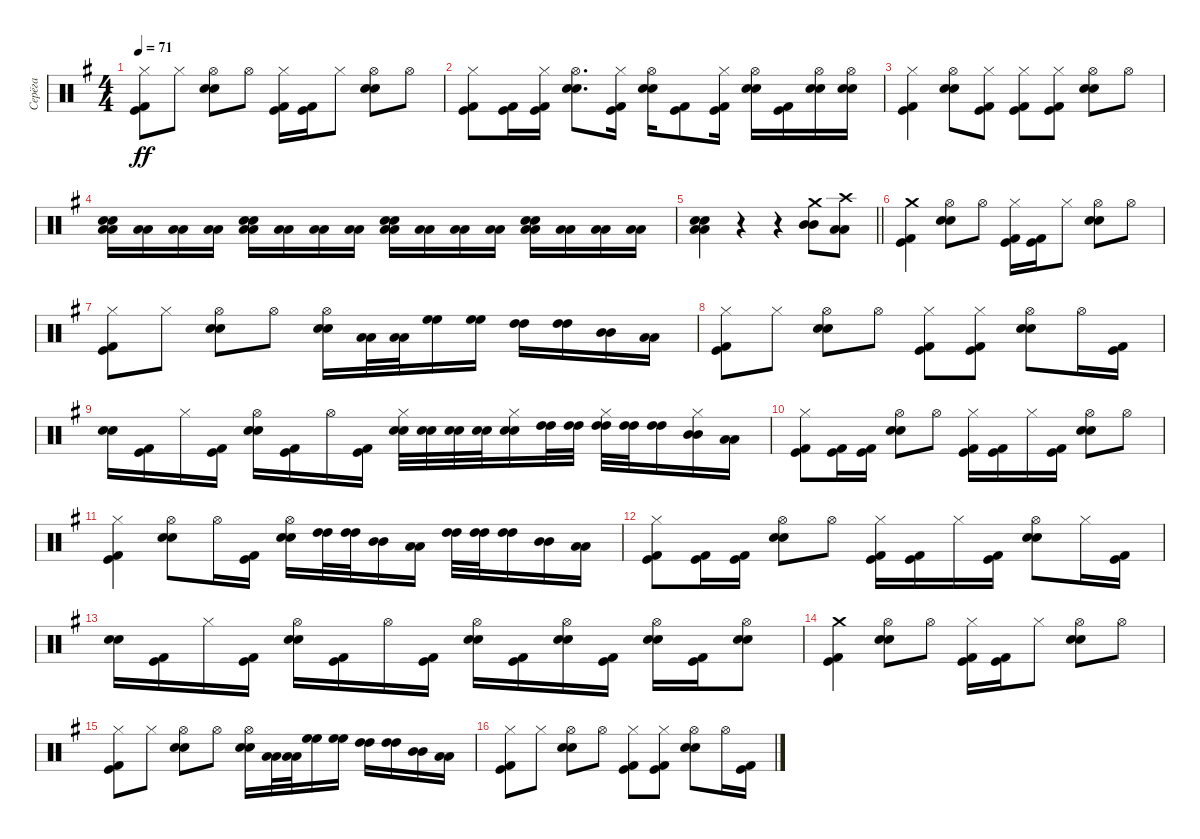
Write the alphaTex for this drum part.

\track ("Серёга" "Серёга") {instrument percussion}
\staff {score}
\articulation defaults
\ts (4 4)
\tempo 71
\clef neutral
\ks eminor
("Hi-Hat (closed)" "Kick (hit)" "Kick (hit) 2").8{dy ff} "Hi-Hat (closed)".8 ("Hi-Hat (open)" "Electric Snare (hit)" "Snare (hit) 2").8 "Hi-Hat (open)".8 ("Hi-Hat (closed)" "Kick (hit)" "Kick (hit) 2").16 ("Kick (hit)" "Kick (hit) 2").16 "Hi-Hat (closed)".8 ("Hi-Hat (open)" "Snare (hit) 2" "Electric Snare (hit)").8 "Hi-Hat (open)".8 |
("Hi-Hat (closed)" "Kick (hit)" "Kick (hit) 2").8 ("Kick (hit)" "Kick (hit) 2").16 ("Hi-Hat (closed)" "Kick (hit)" "Kick (hit) 2").16 ("Hi-Hat (open)" "Electric Snare (hit)" "Snare (hit) 2").8{d} ("Hi-Hat (closed)" "Kick (hit)" "Kick (hit) 2").16 ("Hi-Hat (open)" "Electric Snare (hit)" "Snare (hit) 2").16 ("Kick (hit)" "Kick (hit) 2").8 ("Hi-Hat (closed)" "Kick (hit)" "Kick (hit) 2").16 ("Hi-Hat (open)" "Electric Snare (hit)" "Snare (hit) 2").16 ("Kick (hit)" "Kick (hit) 2").16 ("Hi-Hat (open)" "Electric Snare (hit)" "Snare (hit) 2").16 ("Hi-Hat (open)" "Electric Snare (hit)" "Snare (hit) 2").16 |
("Hi-Hat (closed)" "Kick (hit)" "Kick (hit) 2").4 ("Hi-Hat (open)" "Electric Snare (hit)" "Snare (hit) 2").8 ("Hi-Hat (closed)" "Kick (hit)" "Kick (hit) 2").8 ("Hi-Hat (closed)" "Kick (hit)" "Kick (hit) 2").8 ("Hi-Hat (closed)" "Kick (hit)" "Kick (hit) 2").8 ("Hi-Hat (open)" "Electric Snare (hit)" "Snare (hit) 2").8 "Hi-Hat (open)".8 |
("Low Tom (hit)" "Low Tom (hit)" "Snare (hit) 2" "Electric Snare (hit)").16 ("Low Tom (hit)" "Low Tom (hit)").16 ("Low Tom (hit)" "Low Tom (hit)").16 ("Low Tom (hit)" "Low Tom (hit)").16 ("Low Tom (hit)" "Low Tom (hit)" "Snare (hit) 2" "Electric Snare (hit)").16 ("Low Tom (hit)" "Low Tom (hit)").16 ("Low Tom (hit)" "Low Tom (hit)").16 ("Low Tom (hit)" "Low Tom (hit)").16 ("Low Tom (hit)" "Low Tom (hit)" "Snare (hit) 2" "Electric Snare (hit)").16 ("Low Tom (hit)" "Low Tom (hit)").16 ("Low Tom (hit)" "Low Tom (hit)").16 ("Low Tom (hit)" "Low Tom (hit)").16 ("Low Tom (hit)" "Low Tom (hit)" "Snare (hit) 2" "Electric Snare (hit)").16 ("Low Tom (hit)" "Low Tom (hit)").16 ("Low Tom (hit)" "Low Tom (hit)").16 ("Low Tom (hit)" "Low Tom (hit)").16 |
\barLineRight lightlight
("Low Tom (hit)" "Low Tom (hit)" "Snare (hit) 2" "Electric Snare (hit)").4 r.4 r.4 ("Mid Tom (hit)" "Mid Tom (hit)" "Crash medium (hit)").8 ("Low Tom (hit)" "Low Tom (hit)" "Crash high (hit)").8 |
("Crash medium (hit)" "Kick (hit)" "Kick (hit) 2").4 ("Hi-Hat (open)" "Electric Snare (hit)" "Snare (hit) 2").8 "Hi-Hat (open)".8 ("Hi-Hat (closed)" "Kick (hit)" "Kick (hit) 2").16 ("Kick (hit)" "Kick (hit) 2").16 "Hi-Hat (closed)".8 ("Hi-Hat (open)" "Electric Snare (hit)" "Snare (hit) 2").8 "Hi-Hat (open)".8 |
("Hi-Hat (closed)" "Kick (hit)" "Kick (hit) 2").8 "Hi-Hat (closed)".8 ("Hi-Hat (open)" "Electric Snare (hit)" "Snare (hit) 2").8 "Hi-Hat (open)".8 ("Hi-Hat (open)" "Electric Snare (hit)" "Snare (hit) 2").16 ("Low Tom (hit)" "Low Tom (hit)").32 ("Low Tom (hit)" "Low Tom (hit)").32 ("High Floor Tom (hit)" "High Floor Tom (hit)").16 ("High Floor Tom (hit)" "High Floor Tom (hit)").16 ("High Tom (hit)" "High Tom (hit)").16 ("High Tom (hit)" "High Tom (hit)").16 ("Mid Tom (hit)" "Mid Tom (hit)").16 ("Low Tom (hit)" "Low Tom (hit)").16 |
("Hi-Hat (closed)" "Kick (hit)" "Kick (hit) 2").8 "Hi-Hat (closed)".8 ("Hi-Hat (open)" "Electric Snare (hit)" "Snare (hit) 2").8 "Hi-Hat (open)".8 ("Hi-Hat (closed)" "Kick (hit)" "Kick (hit) 2").8 ("Hi-Hat (closed)" "Kick (hit)" "Kick (hit) 2").8 ("Hi-Hat (open)" "Electric Snare (hit)" "Snare (hit) 2").8 "Hi-Hat (open)".16 ("Kick (hit)" "Kick (hit) 2").16 |
("Electric Snare (hit)" "Snare (hit) 2").16 ("Kick (hit)" "Kick (hit) 2").16 "Hi-Hat (closed)".16 ("Kick (hit)" "Kick (hit) 2").16 ("Hi-Hat (open)" "Electric Snare (hit)" "Snare (hit) 2").16 ("Kick (hit)" "Kick (hit) 2").16 "Hi-Hat (open)".16 ("Kick (hit)" "Kick (hit) 2").16 ("Hi-Hat (closed)" "Snare (hit) 2" "Electric Snare (hit)").32 ("Snare (hit) 2" "Electric Snare (hit)").32 ("Snare (hit) 2" "Electric Snare (hit)").32 ("Snare (hit) 2" "Electric Snare (hit)").32 ("Hi-Hat (closed)" "Snare (hit) 2" "Electric Snare (hit)").16 ("High Tom (hit)" "High Tom (hit)").32 ("High Tom (hit)" "High Tom (hit)").32 ("Hi-Hat (closed)" "High Tom (hit)" "High Tom (hit)").32 ("High Tom (hit)" "High Tom (hit)").32 ("High Tom (hit)" "High Tom (hit)").16 ("Hi-Hat (closed)" "Mid Tom (hit)" "Mid Tom (hit)").16 ("Low Tom (hit)" "Low Tom (hit)").16 |
("Hi-Hat (closed)" "Kick (hit)" "Kick (hit) 2").8 ("Kick (hit)" "Kick (hit) 2").16 ("Kick (hit)" "Kick (hit) 2").16 ("Hi-Hat (open)" "Electric Snare (hit)" "Snare (hit) 2").8 "Hi-Hat (open)".8 ("Hi-Hat (closed)" "Kick (hit)" "Kick (hit) 2").16 ("Kick (hit)" "Kick (hit) 2").16 "Hi-Hat (closed)".16 ("Kick (hit)" "Kick (hit) 2").16 ("Hi-Hat (open)" "Electric Snare (hit)" "Snare (hit) 2").8 "Hi-Hat (open)".8 |
("Hi-Hat (closed)" "Kick (hit)" "Kick (hit) 2").4 ("Hi-Hat (open)" "Electric Snare (hit)" "Snare (hit) 2").8 "Hi-Hat (open)".16 ("Kick (hit)" "Kick (hit) 2").16 ("Hi-Hat (open)" "Snare (hit) 2" "Electric Snare (hit)").16 ("High Tom (hit)" "High Tom (hit)").32 ("High Tom (hit)" "High Tom (hit)").32 ("Mid Tom (hit)" "Mid Tom (hit)").16 ("Low Tom (hit)" "Low Tom (hit)").16 ("High Tom (hit)" "High Tom (hit)").32 ("High Tom (hit)" "High Tom (hit)").32 ("High Tom (hit)" "High Tom (hit)").16 ("Mid Tom (hit)" "Mid Tom (hit)").16 ("Low Tom (hit)" "Low Tom (hit)").16 |
("Hi-Hat (closed)" "Kick (hit)" "Kick (hit) 2").8 ("Kick (hit)" "Kick (hit) 2").16 ("Kick (hit)" "Kick (hit) 2").16 ("Hi-Hat (open)" "Electric Snare (hit)" "Snare (hit) 2").8 "Hi-Hat (open)".8 ("Hi-Hat (closed)" "Kick (hit)" "Kick (hit) 2").16 ("Kick (hit)" "Kick (hit) 2").16 "Hi-Hat (closed)".16 ("Kick (hit)" "Kick (hit) 2").16 ("Hi-Hat (open)" "Electric Snare (hit)" "Snare (hit) 2").8 "Hi-Hat (closed)".16 ("Kick (hit)" "Kick (hit) 2").16 |
("Electric Snare (hit)" "Snare (hit) 2").16 ("Kick (hit)" "Kick (hit) 2").16 "Hi-Hat (closed)".16 ("Kick (hit)" "Kick (hit) 2").16 ("Hi-Hat (open)" "Snare (hit) 2" "Electric Snare (hit)").16 ("Kick (hit)" "Kick (hit) 2").16 "Hi-Hat (open)".16 ("Kick (hit)" "Kick (hit) 2").16 ("Hi-Hat (open)" "Electric Snare (hit)" "Snare (hit) 2").16 ("Kick (hit)" "Kick (hit) 2").16 ("Hi-Hat (open)" "Electric Snare (hit)" "Snare (hit) 2").16 ("Kick (hit)" "Kick (hit) 2").16 ("Hi-Hat (open)" "Electric Snare (hit)" "Snare (hit) 2").16 ("Kick (hit)" "Kick (hit) 2").16 ("Hi-Hat (open)" "Electric Snare (hit)" "Snare (hit) 2").8 |
("Crash medium (hit)" "Kick (hit)" "Kick (hit) 2").4 ("Hi-Hat (open)" "Electric Snare (hit)" "Snare (hit) 2").8 "Hi-Hat (open)".8 ("Hi-Hat (closed)" "Kick (hit)" "Kick (hit) 2").16 ("Kick (hit)" "Kick (hit) 2").16 "Hi-Hat (closed)".8 ("Hi-Hat (open)" "Electric Snare (hit)" "Snare (hit) 2").8 "Hi-Hat (open)".8 |
("Hi-Hat (closed)" "Kick (hit)" "Kick (hit) 2").8 "Hi-Hat (closed)".8 ("Hi-Hat (open)" "Electric Snare (hit)" "Snare (hit) 2").8 "Hi-Hat (open)".8 ("Hi-Hat (open)" "Electric Snare (hit)" "Snare (hit) 2").16 ("Low Tom (hit)" "Low Tom (hit)").32 ("Low Tom (hit)" "Low Tom (hit)").32 ("High Floor Tom (hit)" "High Floor Tom (hit)").16 ("High Floor Tom (hit)" "High Floor Tom (hit)").16 ("High Tom (hit)" "High Tom (hit)").16 ("High Tom (hit)" "High Tom (hit)").16 ("Mid Tom (hit)" "Mid Tom (hit)").16 ("Low Tom (hit)" "Low Tom (hit)").16 |
("Hi-Hat (closed)" "Kick (hit)" "Kick (hit) 2").8 "Hi-Hat (closed)".8 ("Hi-Hat (open)" "Electric Snare (hit)" "Snare (hit) 2").8 "Hi-Hat (open)".8 ("Hi-Hat (closed)" "Kick (hit)" "Kick (hit) 2").8 ("Hi-Hat (closed)" "Kick (hit)" "Kick (hit) 2").8 ("Hi-Hat (open)" "Electric Snare (hit)" "Snare (hit) 2").8 "Hi-Hat (open)".16 ("Kick (hit)" "Kick (hit) 2").16
